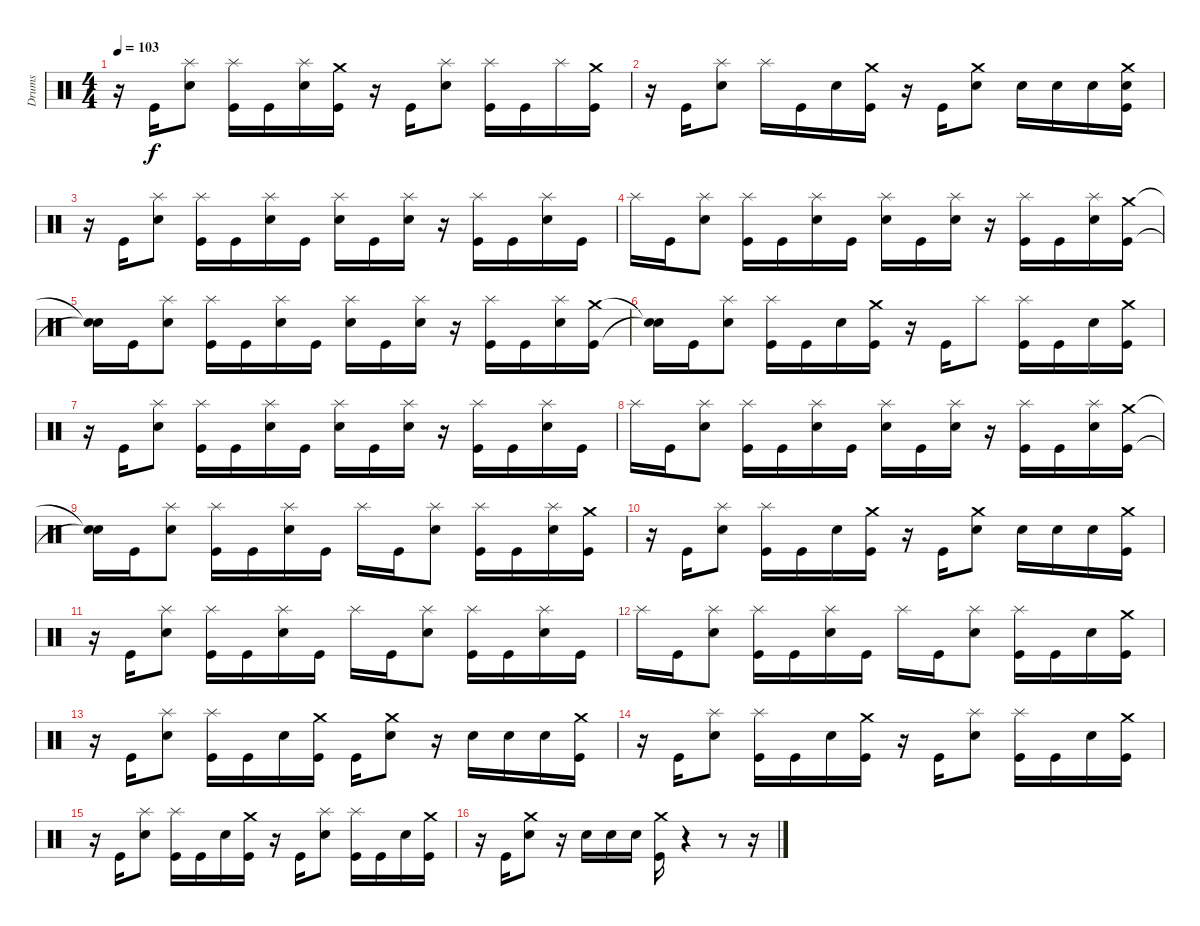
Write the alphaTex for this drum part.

\track ("Drums" "Drums") {instrument percussion}
\staff {score}
\articulation defaults
\ts (4 4)
\tempo 103
\clef neutral
\ks c
r.16{dy f} "Kick (hit)".16 ("Splash (hit)" "Electric Snare (hit)").8 ("Kick (hit)" "Splash (hit)").16 "Kick (hit)".16 ("Electric Snare (hit)" "Splash (hit)").16 ("Crash medium (hit)" "Kick (hit)").16 r.16 "Kick (hit)".16 ("Splash (hit)" "Electric Snare (hit)").8 ("Kick (hit)" "Splash (hit)").16 "Kick (hit)".16 "Splash (hit)".16 ("Crash medium (hit)" "Kick (hit)").16 |
r.16 "Kick (hit)".16 ("Splash (hit)" "Electric Snare (hit)").8 "Splash (hit)".16 "Kick (hit)".16 "Electric Snare (hit)".16 ("Crash medium (hit)" "Kick (hit)").16 r.16 "Kick (hit)".16 ("Crash medium (hit)" "Electric Snare (hit)").8 "Electric Snare (hit)".16 "Electric Snare (hit)".16 "Electric Snare (hit)".16 ("Electric Snare (hit)" "Crash medium (hit)" "Kick (hit)").16 |
r.16 "Kick (hit)".16 ("Splash (hit)" "Electric Snare (hit)").8 ("Kick (hit)" "Splash (hit)").16 "Kick (hit)".16 ("Splash (hit)" "Electric Snare (hit)").16 "Kick (hit)".16 ("Snare (hit)" "Splash (hit)").16 "Kick (hit)".16 ("Splash (hit)" "Electric Snare (hit)").16 r.16 ("Kick (hit)" "Splash (hit)").16 "Kick (hit)".16 ("Splash (hit)" "Electric Snare (hit)").16 "Kick (hit)".16 |
"Splash (hit)".16 "Kick (hit)".16 ("Splash (hit)" "Electric Snare (hit)").8 ("Splash (hit)" "Kick (hit)").16 "Kick (hit)".16 ("Splash (hit)" "Electric Snare (hit)").16 "Kick (hit)".16 ("Snare (hit)" "Splash (hit)").16 "Kick (hit)".16 ("Splash (hit)" "Electric Snare (hit)").16 r.16 ("Splash (hit)" "Kick (hit)").16 "Kick (hit)".16 ("Splash (hit)" "Electric Snare (hit)").16 ("Kick (hit)" "Crash medium (hit)").16 |
("Snare (hit)"{t} "Snare (hit)"{t}).16 "Kick (hit)".16 ("Splash (hit)" "Electric Snare (hit)").8 ("Splash (hit)" "Kick (hit)").16 "Kick (hit)".16 ("Splash (hit)" "Electric Snare (hit)").16 "Kick (hit)".16 ("Snare (hit)" "Splash (hit)").16 "Kick (hit)".16 ("Splash (hit)" "Electric Snare (hit)").16 r.16 ("Splash (hit)" "Kick (hit)").16 "Kick (hit)".16 ("Splash (hit)" "Electric Snare (hit)").16 ("Kick (hit)" "Crash medium (hit)").16 |
("Snare (hit)"{t} "Snare (hit)"{t}).16 "Kick (hit)".16 ("Splash (hit)" "Electric Snare (hit)").8 ("Kick (hit)" "Splash (hit)").16 "Kick (hit)".16 "Electric Snare (hit)".16 ("Crash medium (hit)" "Kick (hit)").16 r.16 "Kick (hit)".16 "Splash (hit)".8 ("Kick (hit)" "Splash (hit)").16 "Kick (hit)".16 "Electric Snare (hit)".16 ("Crash medium (hit)" "Kick (hit)").16 |
r.16 "Kick (hit)".16 ("Splash (hit)" "Electric Snare (hit)").8 ("Splash (hit)" "Kick (hit)").16 "Kick (hit)".16 ("Splash (hit)" "Electric Snare (hit)").16 "Kick (hit)".16 ("Snare (hit)" "Splash (hit)").16 "Kick (hit)".16 ("Splash (hit)" "Electric Snare (hit)").16 r.16 ("Splash (hit)" "Kick (hit)").16 "Kick (hit)".16 ("Splash (hit)" "Electric Snare (hit)").16 "Kick (hit)".16 |
"Splash (hit)".16 "Kick (hit)".16 ("Splash (hit)" "Electric Snare (hit)").8 ("Splash (hit)" "Kick (hit)").16 "Kick (hit)".16 ("Splash (hit)" "Electric Snare (hit)").16 "Kick (hit)".16 ("Snare (hit)" "Splash (hit)").16 "Kick (hit)".16 ("Splash (hit)" "Electric Snare (hit)").16 r.16 ("Splash (hit)" "Kick (hit)").16 "Kick (hit)".16 ("Splash (hit)" "Electric Snare (hit)").16 ("Kick (hit)" "Crash medium (hit)").16 |
("Snare (hit)"{t} "Snare (hit)"{t}).16 "Kick (hit)".16 ("Splash (hit)" "Electric Snare (hit)").8 ("Splash (hit)" "Kick (hit)").16 "Kick (hit)".16 ("Splash (hit)" "Electric Snare (hit)").16 "Kick (hit)".16 "Splash (hit)".16 "Kick (hit)".16 ("Splash (hit)" "Electric Snare (hit)").8 ("Splash (hit)" "Kick (hit)").16 "Kick (hit)".16 ("Splash (hit)" "Electric Snare (hit)").16 ("Crash medium (hit)" "Kick (hit)").16 |
r.16 "Kick (hit)".16 ("Splash (hit)" "Electric Snare (hit)").8 ("Splash (hit)" "Kick (hit)").16 "Kick (hit)".16 "Electric Snare (hit)".16 ("Crash medium (hit)" "Kick (hit)").16 r.16 "Kick (hit)".16 ("Electric Snare (hit)" "Crash medium (hit)").8 "Electric Snare (hit)".16 "Electric Snare (hit)".16 "Electric Snare (hit)".16 ("Crash medium (hit)" "Kick (hit)").16 |
r.16 "Kick (hit)".16 ("Splash (hit)" "Electric Snare (hit)").8 ("Splash (hit)" "Kick (hit)").16 "Kick (hit)".16 ("Splash (hit)" "Electric Snare (hit)").16 "Kick (hit)".16 "Splash (hit)".16 "Kick (hit)".16 ("Splash (hit)" "Electric Snare (hit)").8 ("Splash (hit)" "Kick (hit)").16 "Kick (hit)".16 ("Splash (hit)" "Electric Snare (hit)").16 "Kick (hit)".16 |
"Splash (hit)".16 "Kick (hit)".16 ("Splash (hit)" "Electric Snare (hit)").8 ("Splash (hit)" "Kick (hit)").16 "Kick (hit)".16 ("Splash (hit)" "Electric Snare (hit)").16 "Kick (hit)".16 "Splash (hit)".16 "Kick (hit)".16 ("Splash (hit)" "Electric Snare (hit)").8 ("Splash (hit)" "Kick (hit)").16 "Kick (hit)".16 "Electric Snare (hit)".16 ("Crash medium (hit)" "Kick (hit)").16 |
r.16 "Kick (hit)".16 ("Splash (hit)" "Electric Snare (hit)").8 ("Splash (hit)" "Kick (hit)").16 "Kick (hit)".16 "Electric Snare (hit)".16 ("Crash medium (hit)" "Kick (hit)").16 "Kick (hit)".16 ("Crash medium (hit)" "Electric Snare (hit)").8 r.16 "Electric Snare (hit)".16 "Electric Snare (hit)".16 "Electric Snare (hit)".16 ("Kick (hit)" "Crash medium (hit)").16 |
r.16 "Kick (hit)".16 ("Splash (hit)" "Electric Snare (hit)").8 ("Splash (hit)" "Kick (hit)").16 "Kick (hit)".16 "Electric Snare (hit)".16 ("Crash medium (hit)" "Kick (hit)").16 r.16 "Kick (hit)".16 ("Splash (hit)" "Electric Snare (hit)").8 ("Splash (hit)" "Kick (hit)").16 "Kick (hit)".16 "Electric Snare (hit)".16 ("Crash medium (hit)" "Kick (hit)").16 |
r.16 "Kick (hit)".16 ("Splash (hit)" "Electric Snare (hit)").8 ("Splash (hit)" "Kick (hit)").16 "Kick (hit)".16 "Electric Snare (hit)".16 ("Crash medium (hit)" "Kick (hit)").16 r.16 "Kick (hit)".16 ("Splash (hit)" "Electric Snare (hit)").8 ("Splash (hit)" "Kick (hit)").16 "Kick (hit)".16 "Electric Snare (hit)".16 ("Crash medium (hit)" "Kick (hit)").16 |
r.16 "Kick (hit)".16 ("Crash medium (hit)" "Electric Snare (hit)").8 r.16 "Electric Snare (hit)".16 "Electric Snare (hit)".16 "Electric Snare (hit)".16 ("Kick (hit)" "Crash medium (hit)").16 r.4 r.8 r.16
